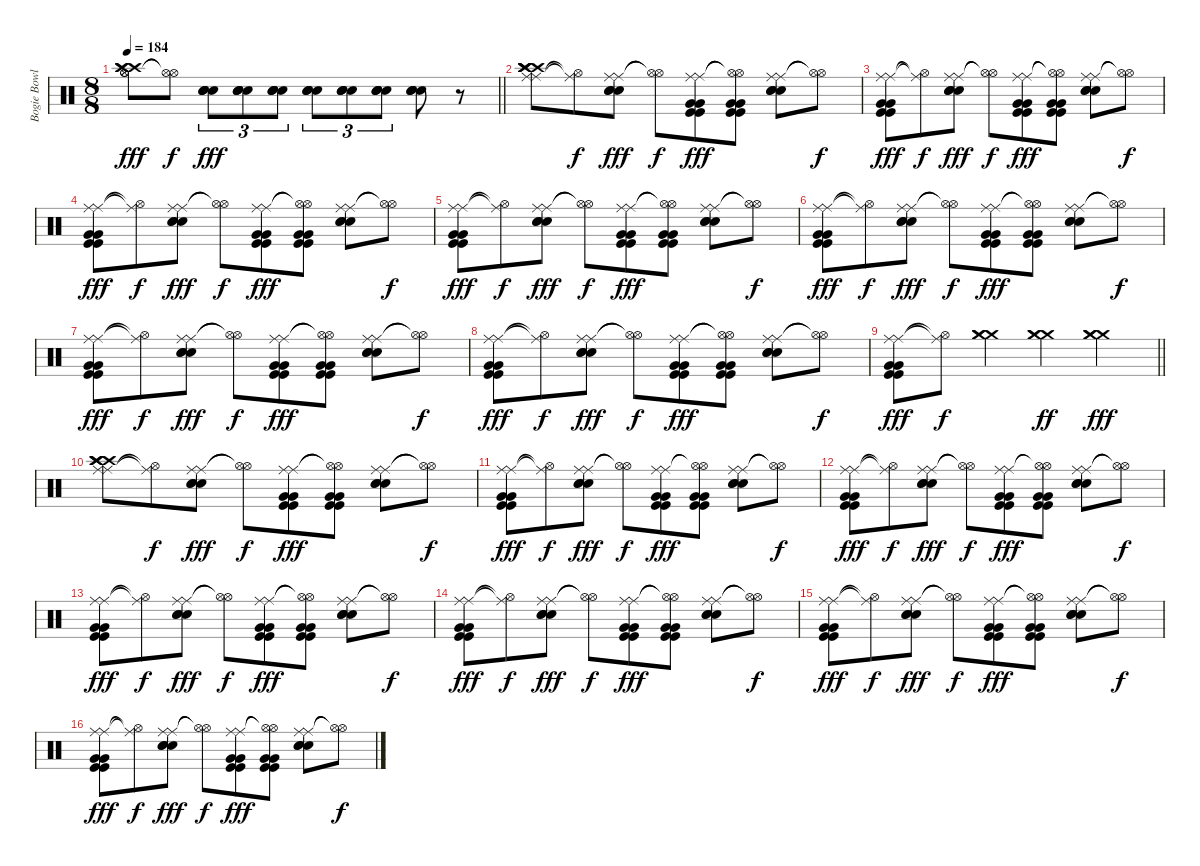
\track ("Bogie Bowles Drums" "Bogie Bowl") {instrument percussion}
\staff {score}
\articulation defaults
\ts (8 8)
\tempo 184
\clef neutral
\barLineRight lightlight
\ks c
("Hi-Hat (open)" "Hi-Hat (open)" "Crash high (hit)" "Crash high (hit)" "Crash high (hit)").8{dy fff} ("Hi-Hat (open)"{t} "Hi-Hat (open)"{t}).8{dy f} ("Snare (hit) 2" "Snare (hit) 2" "Snare (hit) 2" "Snare (hit) 2").8{tu (3 2) dy fff} ("Snare (hit) 2" "Snare (hit) 2" "Snare (hit) 2" "Snare (hit) 2").8{tu (3 2)} ("Snare (hit) 2" "Snare (hit) 2" "Snare (hit) 2" "Snare (hit) 2").8{tu (3 2)} ("Snare (hit) 2" "Snare (hit) 2" "Snare (hit) 2" "Snare (hit) 2").8{tu (3 2)} ("Snare (hit) 2" "Snare (hit) 2" "Snare (hit) 2" "Snare (hit) 2").8{tu (3 2)} ("Snare (hit) 2" "Snare (hit) 2" "Snare (hit) 2" "Snare (hit) 2").8{tu (3 2)} ("Snare (hit) 2" "Snare (hit) 2" "Snare (hit) 2" "Snare (hit) 2").8 r.8 |
("Ride (middle)" "Ride (middle)" "Crash high (hit)" "Crash high (hit)" "Crash high (hit)" "Crash high (hit)").8 ("Hi-Hat (open)"{t} "Ride (middle)"{t}).8{dy f} ("Ride (middle)" "Ride (middle)" "Snare (hit) 2" "Snare (hit) 2" "Snare (hit) 2").8{dy fff} ("Hi-Hat (open)"{t} "Hi-Hat (open)"{t}).8{dy f} ("Ride (middle)" "Ride (middle)" "Kick (hit)" "Kick (hit)" "Very Low Tom (hit)" "Very Low Tom (hit)").8{dy fff} ("Hi-Hat (open)"{t} "Hi-Hat (open)"{t} "Kick (hit)" "Kick (hit)" "Very Low Tom (hit)" "Very Low Tom (hit)").8 ("Ride (middle)" "Ride (middle)" "Snare (hit) 2" "Snare (hit) 2" "Snare (hit) 2").8 ("Hi-Hat (open)"{t} "Hi-Hat (open)"{t}).8{dy f} |
("Ride (middle)" "Ride (middle)" "Kick (hit)" "Kick (hit)" "Very Low Tom (hit)" "Very Low Tom (hit)").8{dy fff} ("Hi-Hat (open)"{t} "Ride (middle)"{t}).8{dy f} ("Ride (middle)" "Ride (middle)" "Snare (hit) 2" "Snare (hit) 2" "Snare (hit) 2").8{dy fff} ("Hi-Hat (open)"{t} "Hi-Hat (open)"{t}).8{dy f} ("Ride (middle)" "Ride (middle)" "Kick (hit)" "Kick (hit)" "Very Low Tom (hit)" "Very Low Tom (hit)").8{dy fff} ("Hi-Hat (open)"{t} "Hi-Hat (open)"{t} "Kick (hit)" "Kick (hit)" "Very Low Tom (hit)" "Very Low Tom (hit)").8 ("Ride (middle)" "Ride (middle)" "Snare (hit) 2" "Snare (hit) 2" "Snare (hit) 2").8 ("Hi-Hat (open)"{t} "Hi-Hat (open)"{t}).8{dy f} |
("Ride (middle)" "Ride (middle)" "Kick (hit)" "Kick (hit)" "Very Low Tom (hit)" "Very Low Tom (hit)").8{dy fff} ("Hi-Hat (open)"{t} "Ride (middle)"{t}).8{dy f} ("Ride (middle)" "Ride (middle)" "Snare (hit) 2" "Snare (hit) 2" "Snare (hit) 2").8{dy fff} ("Hi-Hat (open)"{t} "Hi-Hat (open)"{t}).8{dy f} ("Ride (middle)" "Ride (middle)" "Kick (hit)" "Kick (hit)" "Very Low Tom (hit)" "Very Low Tom (hit)").8{dy fff} ("Hi-Hat (open)"{t} "Hi-Hat (open)"{t} "Kick (hit)" "Kick (hit)" "Very Low Tom (hit)" "Very Low Tom (hit)").8 ("Ride (middle)" "Ride (middle)" "Snare (hit) 2" "Snare (hit) 2" "Snare (hit) 2").8 ("Hi-Hat (open)"{t} "Hi-Hat (open)"{t}).8{dy f} |
("Ride (middle)" "Ride (middle)" "Kick (hit)" "Kick (hit)" "Very Low Tom (hit)" "Very Low Tom (hit)").8{dy fff} ("Hi-Hat (open)"{t} "Ride (middle)"{t}).8{dy f} ("Ride (middle)" "Ride (middle)" "Snare (hit) 2" "Snare (hit) 2" "Snare (hit) 2").8{dy fff} ("Hi-Hat (open)"{t} "Hi-Hat (open)"{t}).8{dy f} ("Ride (middle)" "Ride (middle)" "Kick (hit)" "Kick (hit)" "Very Low Tom (hit)" "Very Low Tom (hit)").8{dy fff} ("Hi-Hat (open)"{t} "Hi-Hat (open)"{t} "Kick (hit)" "Kick (hit)" "Very Low Tom (hit)" "Very Low Tom (hit)").8 ("Ride (middle)" "Ride (middle)" "Snare (hit) 2" "Snare (hit) 2" "Snare (hit) 2").8 ("Hi-Hat (open)"{t} "Hi-Hat (open)"{t}).8{dy f} |
("Ride (middle)" "Ride (middle)" "Kick (hit)" "Kick (hit)" "Very Low Tom (hit)" "Very Low Tom (hit)").8{dy fff} ("Hi-Hat (open)"{t} "Ride (middle)"{t}).8{dy f} ("Ride (middle)" "Ride (middle)" "Snare (hit) 2" "Snare (hit) 2" "Snare (hit) 2").8{dy fff} ("Hi-Hat (open)"{t} "Hi-Hat (open)"{t}).8{dy f} ("Ride (middle)" "Ride (middle)" "Kick (hit)" "Kick (hit)" "Very Low Tom (hit)" "Very Low Tom (hit)").8{dy fff} ("Hi-Hat (open)"{t} "Hi-Hat (open)"{t} "Kick (hit)" "Kick (hit)" "Very Low Tom (hit)" "Very Low Tom (hit)").8 ("Ride (middle)" "Ride (middle)" "Snare (hit) 2" "Snare (hit) 2" "Snare (hit) 2").8 ("Hi-Hat (open)"{t} "Hi-Hat (open)"{t}).8{dy f} |
("Ride (middle)" "Ride (middle)" "Kick (hit)" "Kick (hit)" "Very Low Tom (hit)" "Very Low Tom (hit)").8{dy fff} ("Hi-Hat (open)"{t} "Ride (middle)"{t}).8{dy f} ("Ride (middle)" "Ride (middle)" "Snare (hit) 2" "Snare (hit) 2" "Snare (hit) 2").8{dy fff} ("Hi-Hat (open)"{t} "Hi-Hat (open)"{t}).8{dy f} ("Ride (middle)" "Ride (middle)" "Kick (hit)" "Kick (hit)" "Very Low Tom (hit)" "Very Low Tom (hit)").8{dy fff} ("Hi-Hat (open)"{t} "Hi-Hat (open)"{t} "Kick (hit)" "Kick (hit)" "Very Low Tom (hit)" "Very Low Tom (hit)").8 ("Ride (middle)" "Ride (middle)" "Snare (hit) 2" "Snare (hit) 2" "Snare (hit) 2").8 ("Hi-Hat (open)"{t} "Hi-Hat (open)"{t}).8{dy f} |
("Ride (middle)" "Ride (middle)" "Kick (hit)" "Kick (hit)" "Very Low Tom (hit)" "Very Low Tom (hit)").8{dy fff} ("Hi-Hat (open)"{t} "Ride (middle)"{t}).8{dy f} ("Ride (middle)" "Ride (middle)" "Snare (hit) 2" "Snare (hit) 2" "Snare (hit) 2").8{dy fff} ("Hi-Hat (open)"{t} "Hi-Hat (open)"{t}).8{dy f} ("Ride (middle)" "Ride (middle)" "Kick (hit)" "Kick (hit)" "Very Low Tom (hit)" "Very Low Tom (hit)").8{dy fff} ("Hi-Hat (open)"{t} "Hi-Hat (open)"{t} "Kick (hit)" "Kick (hit)" "Very Low Tom (hit)" "Very Low Tom (hit)").8 ("Ride (middle)" "Ride (middle)" "Snare (hit) 2" "Snare (hit) 2" "Snare (hit) 2").8 ("Hi-Hat (open)"{t} "Hi-Hat (open)"{t}).8{dy f} |
\barLineRight lightlight
("Ride (middle)" "Ride (middle)" "Kick (hit)" "Kick (hit)" "Very Low Tom (hit)" "Very Low Tom (hit)").8{dy fff} ("Hi-Hat (open)"{t} "Ride (middle)"{t}).8{dy f} ("Crash medium (hit)" "Crash medium (hit)" "Crash medium (hit)").4 ("Crash medium (hit)" "Crash medium (hit)" "Crash medium (hit)").4{dy ff} ("Crash medium (hit)" "Crash medium (hit)" "Crash medium (hit)").4{dy fff} |
("Ride (middle)" "Ride (middle)" "Crash high (hit)" "Crash high (hit)" "Crash high (hit)" "Crash high (hit)").8 ("Hi-Hat (open)"{t} "Ride (middle)"{t}).8{dy f} ("Ride (middle)" "Ride (middle)" "Snare (hit) 2" "Snare (hit) 2" "Snare (hit) 2").8{dy fff} ("Hi-Hat (open)"{t} "Hi-Hat (open)"{t}).8{dy f} ("Ride (middle)" "Ride (middle)" "Kick (hit)" "Kick (hit)" "Very Low Tom (hit)" "Very Low Tom (hit)").8{dy fff} ("Hi-Hat (open)"{t} "Hi-Hat (open)"{t} "Kick (hit)" "Kick (hit)" "Very Low Tom (hit)" "Very Low Tom (hit)").8 ("Ride (middle)" "Ride (middle)" "Snare (hit) 2" "Snare (hit) 2" "Snare (hit) 2").8 ("Hi-Hat (open)"{t} "Hi-Hat (open)"{t}).8{dy f} |
("Ride (middle)" "Ride (middle)" "Kick (hit)" "Kick (hit)" "Very Low Tom (hit)" "Very Low Tom (hit)").8{dy fff} ("Hi-Hat (open)"{t} "Ride (middle)"{t}).8{dy f} ("Ride (middle)" "Ride (middle)" "Snare (hit) 2" "Snare (hit) 2" "Snare (hit) 2").8{dy fff} ("Hi-Hat (open)"{t} "Hi-Hat (open)"{t}).8{dy f} ("Ride (middle)" "Ride (middle)" "Kick (hit)" "Kick (hit)" "Very Low Tom (hit)" "Very Low Tom (hit)").8{dy fff} ("Hi-Hat (open)"{t} "Hi-Hat (open)"{t} "Kick (hit)" "Kick (hit)" "Very Low Tom (hit)" "Very Low Tom (hit)").8 ("Ride (middle)" "Ride (middle)" "Snare (hit) 2" "Snare (hit) 2" "Snare (hit) 2").8 ("Hi-Hat (open)"{t} "Hi-Hat (open)"{t}).8{dy f} |
("Ride (middle)" "Ride (middle)" "Kick (hit)" "Kick (hit)" "Very Low Tom (hit)" "Very Low Tom (hit)").8{dy fff} ("Hi-Hat (open)"{t} "Ride (middle)"{t}).8{dy f} ("Ride (middle)" "Ride (middle)" "Snare (hit) 2" "Snare (hit) 2" "Snare (hit) 2").8{dy fff} ("Hi-Hat (open)"{t} "Hi-Hat (open)"{t}).8{dy f} ("Ride (middle)" "Ride (middle)" "Kick (hit)" "Kick (hit)" "Very Low Tom (hit)" "Very Low Tom (hit)").8{dy fff} ("Hi-Hat (open)"{t} "Hi-Hat (open)"{t} "Kick (hit)" "Kick (hit)" "Very Low Tom (hit)" "Very Low Tom (hit)").8 ("Ride (middle)" "Ride (middle)" "Snare (hit) 2" "Snare (hit) 2" "Snare (hit) 2").8 ("Hi-Hat (open)"{t} "Hi-Hat (open)"{t}).8{dy f} |
("Ride (middle)" "Ride (middle)" "Kick (hit)" "Kick (hit)" "Very Low Tom (hit)" "Very Low Tom (hit)").8{dy fff} ("Hi-Hat (open)"{t} "Ride (middle)"{t}).8{dy f} ("Ride (middle)" "Ride (middle)" "Snare (hit) 2" "Snare (hit) 2" "Snare (hit) 2").8{dy fff} ("Hi-Hat (open)"{t} "Hi-Hat (open)"{t}).8{dy f} ("Ride (middle)" "Ride (middle)" "Kick (hit)" "Kick (hit)" "Very Low Tom (hit)" "Very Low Tom (hit)").8{dy fff} ("Hi-Hat (open)"{t} "Hi-Hat (open)"{t} "Kick (hit)" "Kick (hit)" "Very Low Tom (hit)" "Very Low Tom (hit)").8 ("Ride (middle)" "Ride (middle)" "Snare (hit) 2" "Snare (hit) 2" "Snare (hit) 2").8 ("Hi-Hat (open)"{t} "Hi-Hat (open)"{t}).8{dy f} |
("Ride (middle)" "Ride (middle)" "Kick (hit)" "Kick (hit)" "Very Low Tom (hit)" "Very Low Tom (hit)").8{dy fff} ("Hi-Hat (open)"{t} "Ride (middle)"{t}).8{dy f} ("Ride (middle)" "Ride (middle)" "Snare (hit) 2" "Snare (hit) 2" "Snare (hit) 2").8{dy fff} ("Hi-Hat (open)"{t} "Hi-Hat (open)"{t}).8{dy f} ("Ride (middle)" "Ride (middle)" "Kick (hit)" "Kick (hit)" "Very Low Tom (hit)" "Very Low Tom (hit)").8{dy fff} ("Hi-Hat (open)"{t} "Hi-Hat (open)"{t} "Kick (hit)" "Kick (hit)" "Very Low Tom (hit)" "Very Low Tom (hit)").8 ("Ride (middle)" "Ride (middle)" "Snare (hit) 2" "Snare (hit) 2" "Snare (hit) 2").8 ("Hi-Hat (open)"{t} "Hi-Hat (open)"{t}).8{dy f} |
("Ride (middle)" "Ride (middle)" "Kick (hit)" "Kick (hit)" "Very Low Tom (hit)" "Very Low Tom (hit)").8{dy fff} ("Hi-Hat (open)"{t} "Ride (middle)"{t}).8{dy f} ("Ride (middle)" "Ride (middle)" "Snare (hit) 2" "Snare (hit) 2" "Snare (hit) 2").8{dy fff} ("Hi-Hat (open)"{t} "Hi-Hat (open)"{t}).8{dy f} ("Ride (middle)" "Ride (middle)" "Kick (hit)" "Kick (hit)" "Very Low Tom (hit)" "Very Low Tom (hit)").8{dy fff} ("Hi-Hat (open)"{t} "Hi-Hat (open)"{t} "Kick (hit)" "Kick (hit)" "Very Low Tom (hit)" "Very Low Tom (hit)").8 ("Ride (middle)" "Ride (middle)" "Snare (hit) 2" "Snare (hit) 2" "Snare (hit) 2").8 ("Hi-Hat (open)"{t} "Hi-Hat (open)"{t}).8{dy f} |
("Ride (middle)" "Ride (middle)" "Kick (hit)" "Kick (hit)" "Very Low Tom (hit)" "Very Low Tom (hit)").8{dy fff} ("Hi-Hat (open)"{t} "Ride (middle)"{t}).8{dy f} ("Ride (middle)" "Ride (middle)" "Snare (hit) 2" "Snare (hit) 2" "Snare (hit) 2").8{dy fff} ("Hi-Hat (open)"{t} "Hi-Hat (open)"{t}).8{dy f} ("Ride (middle)" "Ride (middle)" "Kick (hit)" "Kick (hit)" "Very Low Tom (hit)" "Very Low Tom (hit)").8{dy fff} ("Hi-Hat (open)"{t} "Hi-Hat (open)"{t} "Kick (hit)" "Kick (hit)" "Very Low Tom (hit)" "Very Low Tom (hit)").8 ("Ride (middle)" "Ride (middle)" "Snare (hit) 2" "Snare (hit) 2" "Snare (hit) 2").8 ("Hi-Hat (open)"{t} "Hi-Hat (open)"{t}).8{dy f}
